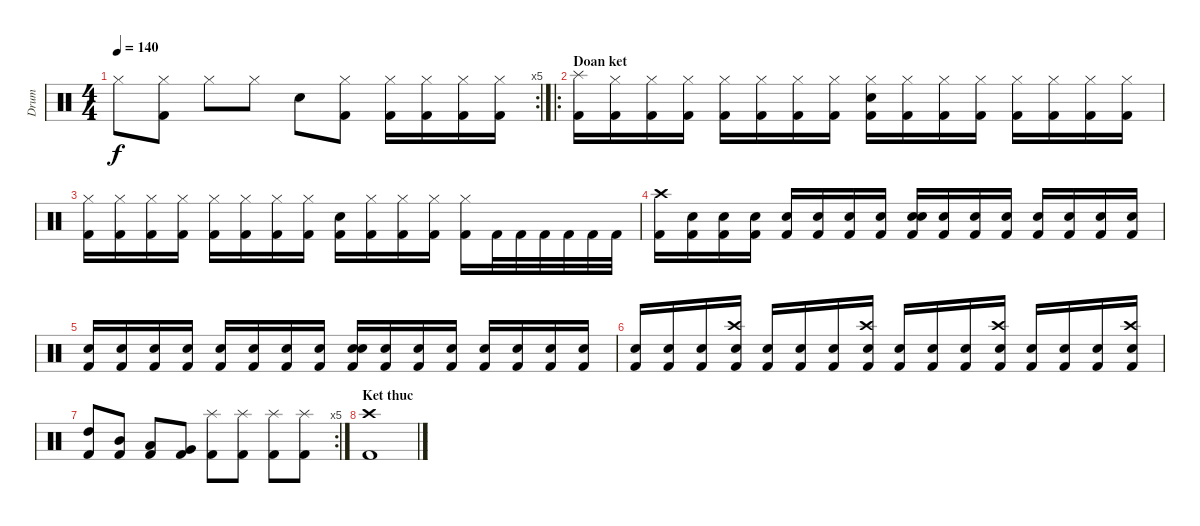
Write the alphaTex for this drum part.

\track ("Drum" "Drum") {instrument percussion}
\staff {score}
\articulation defaults
\rc 5
\ts (4 4)
\tempo 140
\clef neutral
\ks c "Hi-Hat (closed)".8{dy f}
("Hi-Hat (closed)" "Kick (hit) 2").8 "Hi-Hat (closed)".8 "Hi-Hat (closed)".8 "Snare (hit) 2".8 ("Hi-Hat (closed)" "Kick (hit) 2").8 ("Hi-Hat (closed)" "Kick (hit) 2").16 ("Hi-Hat (closed)" "Kick (hit) 2").16 ("Hi-Hat (closed)" "Kick (hit) 2").16 ("Hi-Hat (closed)" "Kick (hit) 2").16 |
\ro
\section ("" "Doan ket")
("Splash (hit)" "Kick (hit) 2").16 ("Hi-Hat (closed)" "Kick (hit) 2").16 ("Hi-Hat (closed)" "Kick (hit) 2").16 ("Hi-Hat (closed)" "Kick (hit) 2").16 ("Hi-Hat (closed)" "Kick (hit) 2").16 ("Hi-Hat (closed)" "Kick (hit) 2").16 ("Hi-Hat (closed)" "Kick (hit) 2").16 ("Hi-Hat (closed)" "Kick (hit) 2").16 ("Snare (hit) 2" "Hi-Hat (closed)" "Kick (hit) 2").16 ("Hi-Hat (closed)" "Kick (hit) 2").16 ("Hi-Hat (closed)" "Kick (hit) 2").16 ("Hi-Hat (closed)" "Kick (hit) 2").16 ("Hi-Hat (closed)" "Kick (hit) 2").16 ("Hi-Hat (closed)" "Kick (hit) 2").16 ("Hi-Hat (closed)" "Kick (hit) 2").16 ("Hi-Hat (closed)" "Kick (hit) 2").16 |
("Hi-Hat (closed)" "Kick (hit) 2").16 ("Hi-Hat (closed)" "Kick (hit) 2").16 ("Hi-Hat (closed)" "Kick (hit) 2").16 ("Hi-Hat (closed)" "Kick (hit) 2").16 ("Hi-Hat (closed)" "Kick (hit) 2").16 ("Hi-Hat (closed)" "Kick (hit) 2").16 ("Hi-Hat (closed)" "Kick (hit) 2").16 ("Hi-Hat (closed)" "Kick (hit) 2").16 ("Snare (hit) 2" "Kick (hit) 2").16 ("Hi-Hat (closed)" "Kick (hit) 2").16 ("Hi-Hat (closed)" "Kick (hit) 2").16 ("Hi-Hat (closed)" "Kick (hit) 2").16 ("Hi-Hat (closed)" "Kick (hit) 2").16 "Kick (hit) 2".32 "Kick (hit) 2".32 "Kick (hit) 2".32 "Kick (hit) 2".32 "Kick (hit) 2".32 "Kick (hit) 2".32 |
("Crash high (hit)" "Kick (hit) 2").16 ("Metronome (bell)" "Kick (hit) 2").16 ("Metronome (bell)" "Kick (hit) 2").16 ("Metronome (bell)" "Kick (hit) 2").16 ("Metronome (bell)" "Kick (hit) 2").16 ("Metronome (bell)" "Kick (hit) 2").16 ("Metronome (bell)" "Kick (hit) 2").16 ("Metronome (bell)" "Kick (hit) 2").16 ("Snare (hit) 2" "Metronome (bell)" "Kick (hit) 2").16 ("Metronome (bell)" "Kick (hit) 2").16 ("Metronome (bell)" "Kick (hit) 2").16 ("Metronome (bell)" "Kick (hit) 2").16 ("Metronome (bell)" "Kick (hit) 2").16 ("Metronome (bell)" "Kick (hit) 2").16 ("Metronome (bell)" "Kick (hit) 2").16 ("Metronome (bell)" "Kick (hit) 2").16 |
("Metronome (bell)" "Kick (hit) 2").16 ("Metronome (bell)" "Kick (hit) 2").16 ("Metronome (bell)" "Kick (hit) 2").16 ("Metronome (bell)" "Kick (hit) 2").16 ("Metronome (bell)" "Kick (hit) 2").16 ("Metronome (bell)" "Kick (hit) 2").16 ("Metronome (bell)" "Kick (hit) 2").16 ("Metronome (bell)" "Kick (hit) 2").16 ("Snare (hit) 2" "Metronome (bell)" "Kick (hit) 2").16 ("Metronome (bell)" "Kick (hit) 2").16 ("Metronome (bell)" "Kick (hit) 2").16 ("Metronome (bell)" "Kick (hit) 2").16 ("Metronome (bell)" "Kick (hit) 2").16 ("Metronome (bell)" "Kick (hit) 2").16 ("Metronome (bell)" "Kick (hit) 2").16 ("Metronome (bell)" "Kick (hit) 2").16 |
("Metronome (bell)" "Kick (hit) 2").16 ("Metronome (bell)" "Kick (hit) 2").16 ("Metronome (bell)" "Kick (hit) 2").16 ("Crash high (hit)" "Metronome (bell)" "Kick (hit) 2").16 ("Metronome (bell)" "Kick (hit) 2").16 ("Metronome (bell)" "Kick (hit) 2").16 ("Metronome (bell)" "Kick (hit) 2").16 ("Crash high (hit)" "Metronome (bell)" "Kick (hit) 2").16 ("Metronome (bell)" "Kick (hit) 2").16 ("Metronome (bell)" "Kick (hit) 2").16 ("Metronome (bell)" "Kick (hit) 2").16 ("Crash high (hit)" "Metronome (bell)" "Kick (hit) 2").16 ("Metronome (bell)" "Kick (hit) 2").16 ("Metronome (bell)" "Kick (hit) 2").16 ("Metronome (bell)" "Kick (hit) 2").16 ("Crash high (hit)" "Metronome (bell)" "Kick (hit) 2").16 |
\rc 5
("High Tom (hit)" "Kick (hit) 2").8 ("Mid Tom (hit)" "Kick (hit) 2").8 ("Low Tom (hit)" "Kick (hit) 2").8 ("Very Low Tom (hit)" "Kick (hit) 2").8 ("Splash (hit)" "Kick (hit) 2").8 ("Splash (hit)" "Kick (hit) 2").8 ("Splash (hit)" "Kick (hit) 2").8 ("Splash (hit)" "Kick (hit) 2").8 |
\section ("" "Ket thuc ")
("Crash high (hit)" "Kick (hit) 2").1
